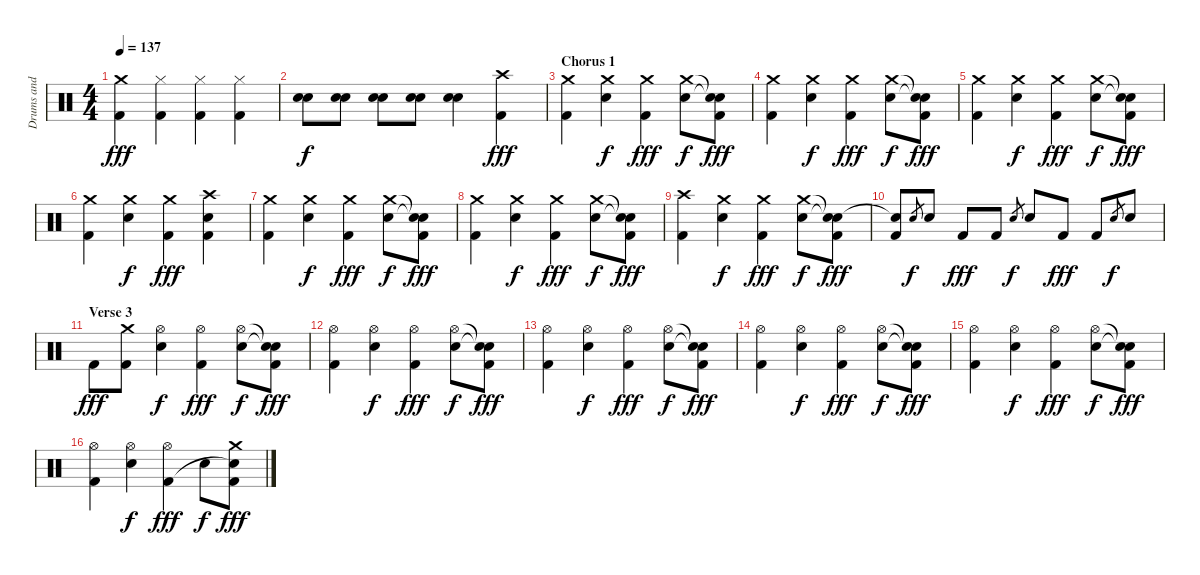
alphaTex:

\track ("Drums and Percussion" "Drums and ") {instrument percussion}
\staff {score}
\articulation defaults
\ts (4 4)
\tempo 137
\clef neutral
\ks c
("Crash medium (hit)" "Kick (hit) 2").4{dy fff} ("Hi-Hat (closed)" "Kick (hit) 2").4 ("Hi-Hat (closed)" "Kick (hit) 2").4 ("Hi-Hat (closed)" "Kick (hit) 2").4 |
("Electric Snare (hit)" "Electric Snare (hit)").8{dy f} ("Electric Snare (hit)" "Electric Snare (hit)").8 ("Electric Snare (hit)" "Electric Snare (hit)").8 ("Electric Snare (hit)" "Electric Snare (hit)").8 ("Electric Snare (hit)" "Electric Snare (hit)").4 ("Crash high (hit)" "Kick (hit) 2").4{dy fff} |
\section ("" "Chorus 1")
("Crash medium (hit)" "Kick (hit) 2").4 ("Crash medium (hit)" "Electric Snare (hit)").4{dy f} ("Crash medium (hit)" "Kick (hit) 2").4{dy fff} ("Crash medium (hit)" "Electric Snare (hit)").8{dy f} ("Snare (hit)"{t} "Snare (hit)"{t} "Kick (hit) 2").8{dy fff} |
("Crash medium (hit)" "Kick (hit) 2").4 ("Crash medium (hit)" "Electric Snare (hit)").4{dy f} ("Crash medium (hit)" "Kick (hit) 2").4{dy fff} ("Crash medium (hit)" "Electric Snare (hit)").8{dy f} ("Snare (hit)"{t} "Snare (hit)"{t} "Kick (hit) 2").8{dy fff} |
("Crash medium (hit)" "Kick (hit) 2").4 ("Crash medium (hit)" "Electric Snare (hit)").4{dy f} ("Crash medium (hit)" "Kick (hit) 2").4{dy fff} ("Crash medium (hit)" "Electric Snare (hit)").8{dy f} ("Snare (hit)"{t} "Snare (hit)"{t} "Kick (hit) 2").8{dy fff} |
("Crash medium (hit)" "Kick (hit) 2").4 ("Crash medium (hit)" "Electric Snare (hit)").4{dy f} ("Crash medium (hit)" "Kick (hit) 2").4{dy fff} ("Crash high (hit)" "Electric Snare (hit)" "Kick (hit) 2").4 |
("Crash medium (hit)" "Kick (hit) 2").4 ("Crash medium (hit)" "Electric Snare (hit)").4{dy f} ("Crash medium (hit)" "Kick (hit) 2").4{dy fff} ("Crash medium (hit)" "Electric Snare (hit)").8{dy f} ("Snare (hit)"{t} "Snare (hit)"{t} "Kick (hit) 2").8{dy fff} |
("Crash medium (hit)" "Kick (hit) 2").4 ("Crash medium (hit)" "Electric Snare (hit)").4{dy f} ("Crash medium (hit)" "Kick (hit) 2").4{dy fff} ("Crash medium (hit)" "Electric Snare (hit)").8{dy f} ("Snare (hit)"{t} "Snare (hit)"{t} "Kick (hit) 2").8{dy fff} |
("Crash high (hit)" "Kick (hit) 2").4 ("Crash medium (hit)" "Electric Snare (hit)").4{dy f} ("Crash medium (hit)" "Kick (hit) 2").4{dy fff} ("Crash medium (hit)" "Electric Snare (hit)").8{dy f} ("Snare (hit)"{t} "Snare (hit)"{t} "Kick (hit) 2").8{dy fff} |
("Snare (hit)"{t} "Kick (hit) 2").8 "Electric Snare (hit)".8{gr dy f} "Electric Snare (hit)".8 "Kick (hit) 2".8{dy fff} "Kick (hit) 2".8 "Electric Snare (hit)".8{gr dy f} "Electric Snare (hit)".8 "Kick (hit) 2".8{dy fff} "Kick (hit) 2".8 "Electric Snare (hit)".8{gr dy f} "Electric Snare (hit)".8 |
\section ("" "Verse 3")
"Kick (hit) 2".8{dy fff} ("Crash medium (hit)" "Kick (hit) 2").8 ("Hi-Hat (open)" "Electric Snare (hit)").4{dy f} ("Hi-Hat (open)" "Kick (hit) 2").4{dy fff} ("Hi-Hat (open)" "Electric Snare (hit)").8{dy f} ("Snare (hit)"{t} "Snare (hit)"{t} "Kick (hit) 2").8{dy fff} |
("Hi-Hat (open)" "Kick (hit) 2").4 ("Hi-Hat (open)" "Electric Snare (hit)").4{dy f} ("Hi-Hat (open)" "Kick (hit) 2").4{dy fff} ("Hi-Hat (open)" "Electric Snare (hit)").8{dy f} ("Snare (hit)"{t} "Snare (hit)"{t} "Kick (hit) 2").8{dy fff} |
("Hi-Hat (open)" "Kick (hit) 2").4 ("Hi-Hat (open)" "Electric Snare (hit)").4{dy f} ("Hi-Hat (open)" "Kick (hit) 2").4{dy fff} ("Hi-Hat (open)" "Electric Snare (hit)").8{dy f} ("Snare (hit)"{t} "Snare (hit)"{t} "Kick (hit) 2").8{dy fff} |
("Hi-Hat (open)" "Kick (hit) 2").4 ("Hi-Hat (open)" "Electric Snare (hit)").4{dy f} ("Hi-Hat (open)" "Kick (hit) 2").4{dy fff} ("Hi-Hat (open)" "Electric Snare (hit)").8{dy f} ("Snare (hit)"{t} "Snare (hit)"{t} "Kick (hit) 2").8{dy fff} |
("Hi-Hat (open)" "Kick (hit) 2").4 ("Hi-Hat (open)" "Electric Snare (hit)").4{dy f} ("Hi-Hat (open)" "Kick (hit) 2").4{dy fff} ("Hi-Hat (open)" "Electric Snare (hit)").8{dy f} ("Snare (hit)"{t} "Snare (hit)"{t} "Kick (hit) 2").8{dy fff} |
("Hi-Hat (open)" "Kick (hit) 2").4 ("Hi-Hat (open)" "Electric Snare (hit)").4{dy f} ("Hi-Hat (open)" "Kick (hit) 2").4{dy fff} "Electric Snare (hit)".8{dy f} ("Crash medium (hit)" "Snare (hit)"{t} "Kick (hit) 2").8{dy fff}
